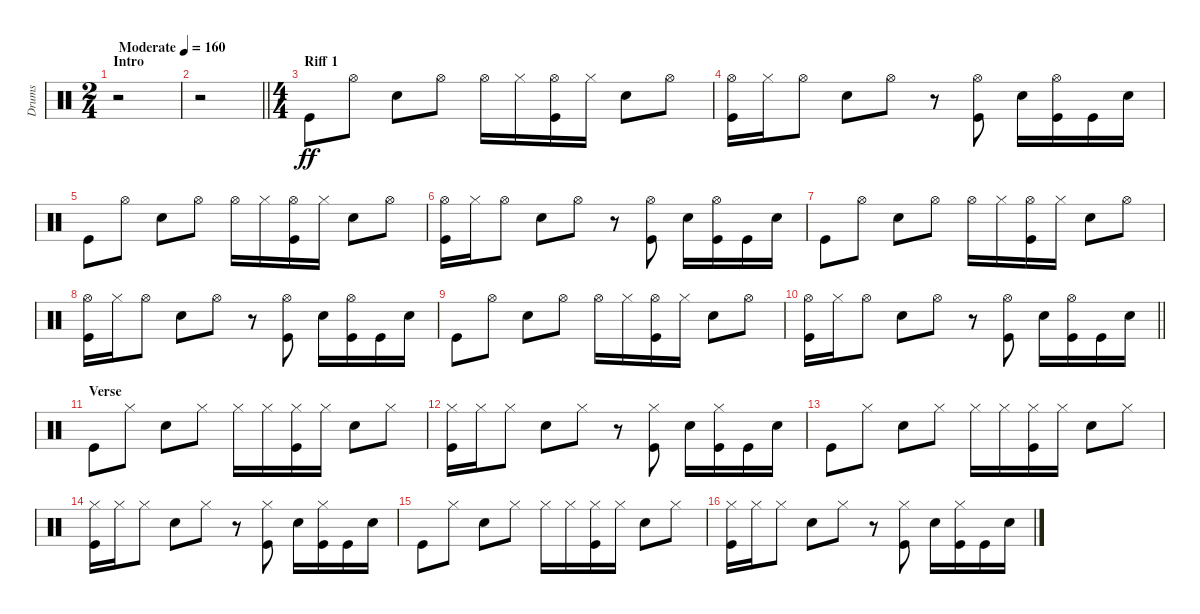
\track ("Drums" "Drums") {instrument percussion}
\staff {score}
\articulation defaults
\ts (2 4)
\section ("" "Intro")
\tempo (160 "Moderate")
\clef neutral
\ks c
r.2{dy ff} |
\barLineRight lightlight
r.2 |
\ts (4 4)
\section ("" "Riff 1")
"Kick (hit)".8 "Hi-Hat (open)".8 "Snare (hit) 2".8 "Hi-Hat (open)".8 "Hi-Hat (open)".16 "Hi-Hat (closed)".16 ("Kick (hit)" "Hi-Hat (open)").16 "Hi-Hat (closed)".16 "Snare (hit) 2".8 "Hi-Hat (open)".8 |
("Kick (hit)" "Hi-Hat (open)").16 "Hi-Hat (closed)".16 "Hi-Hat (open)".8 "Snare (hit) 2".8 "Hi-Hat (open)".8 r.8 ("Kick (hit)" "Hi-Hat (open)").8 "Snare (hit) 2".16 ("Kick (hit)" "Hi-Hat (open)").16 "Kick (hit)".16 "Snare (hit) 2".16 |
"Kick (hit)".8 "Hi-Hat (open)".8 "Snare (hit) 2".8 "Hi-Hat (open)".8 "Hi-Hat (open)".16 "Hi-Hat (closed)".16 ("Kick (hit)" "Hi-Hat (open)").16 "Hi-Hat (closed)".16 "Snare (hit) 2".8 "Hi-Hat (open)".8 |
("Kick (hit)" "Hi-Hat (open)").16 "Hi-Hat (closed)".16 "Hi-Hat (open)".8 "Snare (hit) 2".8 "Hi-Hat (open)".8 r.8 ("Kick (hit)" "Hi-Hat (open)").8 "Snare (hit) 2".16 ("Kick (hit)" "Hi-Hat (open)").16 "Kick (hit)".16 "Snare (hit) 2".16 |
"Kick (hit)".8 "Hi-Hat (open)".8 "Snare (hit) 2".8 "Hi-Hat (open)".8 "Hi-Hat (open)".16 "Hi-Hat (closed)".16 ("Kick (hit)" "Hi-Hat (open)").16 "Hi-Hat (closed)".16 "Snare (hit) 2".8 "Hi-Hat (open)".8 |
("Kick (hit)" "Hi-Hat (open)").16 "Hi-Hat (closed)".16 "Hi-Hat (open)".8 "Snare (hit) 2".8 "Hi-Hat (open)".8 r.8 ("Kick (hit)" "Hi-Hat (open)").8 "Snare (hit) 2".16 ("Kick (hit)" "Hi-Hat (open)").16 "Kick (hit)".16 "Snare (hit) 2".16 |
"Kick (hit)".8 "Hi-Hat (open)".8 "Snare (hit) 2".8 "Hi-Hat (open)".8 "Hi-Hat (open)".16 "Hi-Hat (closed)".16 ("Kick (hit)" "Hi-Hat (open)").16 "Hi-Hat (closed)".16 "Snare (hit) 2".8 "Hi-Hat (open)".8 |
\barLineRight lightlight
("Kick (hit)" "Hi-Hat (open)").16 "Hi-Hat (closed)".16 "Hi-Hat (open)".8 "Snare (hit) 2".8 "Hi-Hat (open)".8 r.8 ("Kick (hit)" "Hi-Hat (open)").8 "Snare (hit) 2".16 ("Kick (hit)" "Hi-Hat (open)").16 "Kick (hit)".16 "Snare (hit) 2".16 |
\section ("" "Verse")
"Kick (hit)".8 "Hi-Hat (closed)".8 "Snare (hit) 2".8 "Hi-Hat (closed)".8 "Hi-Hat (closed)".16 "Hi-Hat (closed)".16 ("Kick (hit)" "Hi-Hat (closed)").16 "Hi-Hat (closed)".16 "Snare (hit) 2".8 "Hi-Hat (closed)".8 |
("Kick (hit)" "Hi-Hat (closed)").16 "Hi-Hat (closed)".16 "Hi-Hat (closed)".8 "Snare (hit) 2".8 "Hi-Hat (closed)".8 r.8 ("Kick (hit)" "Hi-Hat (closed)").8 "Snare (hit) 2".16 ("Kick (hit)" "Hi-Hat (closed)").16 "Kick (hit)".16 "Snare (hit) 2".16 |
"Kick (hit)".8 "Hi-Hat (closed)".8 "Snare (hit) 2".8 "Hi-Hat (closed)".8 "Hi-Hat (closed)".16 "Hi-Hat (closed)".16 ("Kick (hit)" "Hi-Hat (closed)").16 "Hi-Hat (closed)".16 "Snare (hit) 2".8 "Hi-Hat (closed)".8 |
("Kick (hit)" "Hi-Hat (closed)").16 "Hi-Hat (closed)".16 "Hi-Hat (closed)".8 "Snare (hit) 2".8 "Hi-Hat (closed)".8 r.8 ("Kick (hit)" "Hi-Hat (closed)").8 "Snare (hit) 2".16 ("Kick (hit)" "Hi-Hat (closed)").16 "Kick (hit)".16 "Snare (hit) 2".16 |
"Kick (hit)".8 "Hi-Hat (closed)".8 "Snare (hit) 2".8 "Hi-Hat (closed)".8 "Hi-Hat (closed)".16 "Hi-Hat (closed)".16 ("Kick (hit)" "Hi-Hat (closed)").16 "Hi-Hat (closed)".16 "Snare (hit) 2".8 "Hi-Hat (closed)".8 |
("Kick (hit)" "Hi-Hat (closed)").16 "Hi-Hat (closed)".16 "Hi-Hat (closed)".8 "Snare (hit) 2".8 "Hi-Hat (closed)".8 r.8 ("Kick (hit)" "Hi-Hat (closed)").8 "Snare (hit) 2".16 ("Kick (hit)" "Hi-Hat (closed)").16 "Kick (hit)".16 "Snare (hit) 2".16
